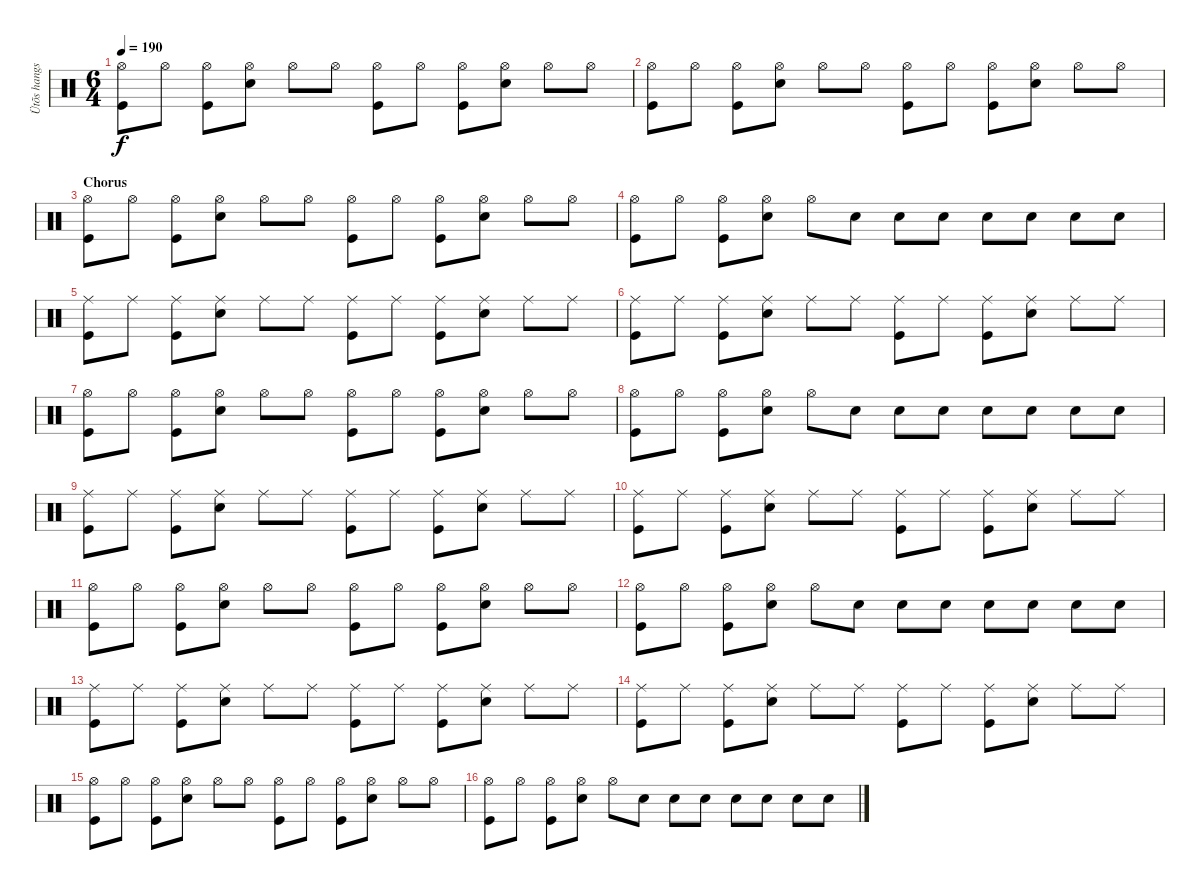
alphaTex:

\track ("Ütõs hangszer" "Ütõs hangs") {instrument percussion}
\staff {score}
\articulation defaults
\ts (6 4)
\tempo 190
\clef neutral
\ks c
("Hi-Hat (open)" "Kick (hit)").8{dy f} "Hi-Hat (open)".8 ("Hi-Hat (open)" "Kick (hit)").8 ("Hi-Hat (open)" "Snare (hit) 2").8 "Hi-Hat (open)".8 "Hi-Hat (open)".8 ("Hi-Hat (open)" "Kick (hit)").8 "Hi-Hat (open)".8 ("Hi-Hat (open)" "Kick (hit)").8 ("Hi-Hat (open)" "Snare (hit) 2").8 "Hi-Hat (open)".8 "Hi-Hat (open)".8 |
("Hi-Hat (open)" "Kick (hit)").8 "Hi-Hat (open)".8 ("Hi-Hat (open)" "Kick (hit)").8 ("Hi-Hat (open)" "Snare (hit) 2").8 "Hi-Hat (open)".8 "Hi-Hat (open)".8 ("Hi-Hat (open)" "Kick (hit)").8 "Hi-Hat (open)".8 ("Hi-Hat (open)" "Kick (hit)").8 ("Hi-Hat (open)" "Snare (hit) 2").8 "Hi-Hat (open)".8 "Hi-Hat (open)".8 |
\section ("" "Chorus")
("Hi-Hat (open)" "Kick (hit)").8 "Hi-Hat (open)".8 ("Hi-Hat (open)" "Kick (hit)").8 ("Hi-Hat (open)" "Snare (hit) 2").8 "Hi-Hat (open)".8 "Hi-Hat (open)".8 ("Hi-Hat (open)" "Kick (hit)").8 "Hi-Hat (open)".8 ("Hi-Hat (open)" "Kick (hit)").8 ("Hi-Hat (open)" "Snare (hit) 2").8 "Hi-Hat (open)".8 "Hi-Hat (open)".8 |
("Hi-Hat (open)" "Kick (hit)").8 "Hi-Hat (open)".8 ("Hi-Hat (open)" "Kick (hit)").8 ("Hi-Hat (open)" "Snare (hit) 2").8 "Hi-Hat (open)".8 "Snare (hit) 2".8 "Snare (hit) 2".8 "Snare (hit) 2".8 "Snare (hit) 2".8 "Snare (hit) 2".8 "Snare (hit) 2".8 "Snare (hit) 2".8 |
("Ride (middle)" "Kick (hit)").8 "Ride (middle)".8 ("Ride (middle)" "Kick (hit)").8 ("Ride (middle)" "Snare (hit) 2").8 "Ride (middle)".8 "Ride (middle)".8 ("Ride (middle)" "Kick (hit)").8 "Ride (middle)".8 ("Ride (middle)" "Kick (hit)").8 ("Ride (middle)" "Snare (hit) 2").8 "Ride (middle)".8 "Ride (middle)".8 |
("Ride (middle)" "Kick (hit)").8 "Ride (middle)".8 ("Ride (middle)" "Kick (hit)").8 ("Ride (middle)" "Snare (hit) 2").8 "Ride (middle)".8 "Ride (middle)".8 ("Ride (middle)" "Kick (hit)").8 "Ride (middle)".8 ("Ride (middle)" "Kick (hit)").8 ("Ride (middle)" "Snare (hit) 2").8 "Ride (middle)".8 "Ride (middle)".8 |
("Hi-Hat (open)" "Kick (hit)").8 "Hi-Hat (open)".8 ("Hi-Hat (open)" "Kick (hit)").8 ("Hi-Hat (open)" "Snare (hit) 2").8 "Hi-Hat (open)".8 "Hi-Hat (open)".8 ("Hi-Hat (open)" "Kick (hit)").8 "Hi-Hat (open)".8 ("Hi-Hat (open)" "Kick (hit)").8 ("Hi-Hat (open)" "Snare (hit) 2").8 "Hi-Hat (open)".8 "Hi-Hat (open)".8 |
("Hi-Hat (open)" "Kick (hit)").8 "Hi-Hat (open)".8 ("Hi-Hat (open)" "Kick (hit)").8 ("Hi-Hat (open)" "Snare (hit) 2").8 "Hi-Hat (open)".8 "Snare (hit) 2".8 "Snare (hit) 2".8 "Snare (hit) 2".8 "Snare (hit) 2".8 "Snare (hit) 2".8 "Snare (hit) 2".8 "Snare (hit) 2".8 |
("Ride (middle)" "Kick (hit)").8 "Ride (middle)".8 ("Ride (middle)" "Kick (hit)").8 ("Ride (middle)" "Snare (hit) 2").8 "Ride (middle)".8 "Ride (middle)".8 ("Ride (middle)" "Kick (hit)").8 "Ride (middle)".8 ("Ride (middle)" "Kick (hit)").8 ("Ride (middle)" "Snare (hit) 2").8 "Ride (middle)".8 "Ride (middle)".8 |
("Ride (middle)" "Kick (hit)").8 "Ride (middle)".8 ("Ride (middle)" "Kick (hit)").8 ("Ride (middle)" "Snare (hit) 2").8 "Ride (middle)".8 "Ride (middle)".8 ("Ride (middle)" "Kick (hit)").8 "Ride (middle)".8 ("Ride (middle)" "Kick (hit)").8 ("Ride (middle)" "Snare (hit) 2").8 "Ride (middle)".8 "Ride (middle)".8 |
("Hi-Hat (open)" "Kick (hit)").8 "Hi-Hat (open)".8 ("Hi-Hat (open)" "Kick (hit)").8 ("Hi-Hat (open)" "Snare (hit) 2").8 "Hi-Hat (open)".8 "Hi-Hat (open)".8 ("Hi-Hat (open)" "Kick (hit)").8 "Hi-Hat (open)".8 ("Hi-Hat (open)" "Kick (hit)").8 ("Hi-Hat (open)" "Snare (hit) 2").8 "Hi-Hat (open)".8 "Hi-Hat (open)".8 |
("Hi-Hat (open)" "Kick (hit)").8 "Hi-Hat (open)".8 ("Hi-Hat (open)" "Kick (hit)").8 ("Hi-Hat (open)" "Snare (hit) 2").8 "Hi-Hat (open)".8 "Snare (hit) 2".8 "Snare (hit) 2".8 "Snare (hit) 2".8 "Snare (hit) 2".8 "Snare (hit) 2".8 "Snare (hit) 2".8 "Snare (hit) 2".8 |
("Ride (middle)" "Kick (hit)").8 "Ride (middle)".8 ("Ride (middle)" "Kick (hit)").8 ("Ride (middle)" "Snare (hit) 2").8 "Ride (middle)".8 "Ride (middle)".8 ("Ride (middle)" "Kick (hit)").8 "Ride (middle)".8 ("Ride (middle)" "Kick (hit)").8 ("Ride (middle)" "Snare (hit) 2").8 "Ride (middle)".8 "Ride (middle)".8 |
("Ride (middle)" "Kick (hit)").8 "Ride (middle)".8 ("Ride (middle)" "Kick (hit)").8 ("Ride (middle)" "Snare (hit) 2").8 "Ride (middle)".8 "Ride (middle)".8 ("Ride (middle)" "Kick (hit)").8 "Ride (middle)".8 ("Ride (middle)" "Kick (hit)").8 ("Ride (middle)" "Snare (hit) 2").8 "Ride (middle)".8 "Ride (middle)".8 |
("Hi-Hat (open)" "Kick (hit)").8 "Hi-Hat (open)".8 ("Hi-Hat (open)" "Kick (hit)").8 ("Hi-Hat (open)" "Snare (hit) 2").8 "Hi-Hat (open)".8 "Hi-Hat (open)".8 ("Hi-Hat (open)" "Kick (hit)").8 "Hi-Hat (open)".8 ("Hi-Hat (open)" "Kick (hit)").8 ("Hi-Hat (open)" "Snare (hit) 2").8 "Hi-Hat (open)".8 "Hi-Hat (open)".8 |
("Hi-Hat (open)" "Kick (hit)").8 "Hi-Hat (open)".8 ("Hi-Hat (open)" "Kick (hit)").8 ("Hi-Hat (open)" "Snare (hit) 2").8 "Hi-Hat (open)".8 "Snare (hit) 2".8 "Snare (hit) 2".8 "Snare (hit) 2".8 "Snare (hit) 2".8 "Snare (hit) 2".8 "Snare (hit) 2".8 "Snare (hit) 2".8
